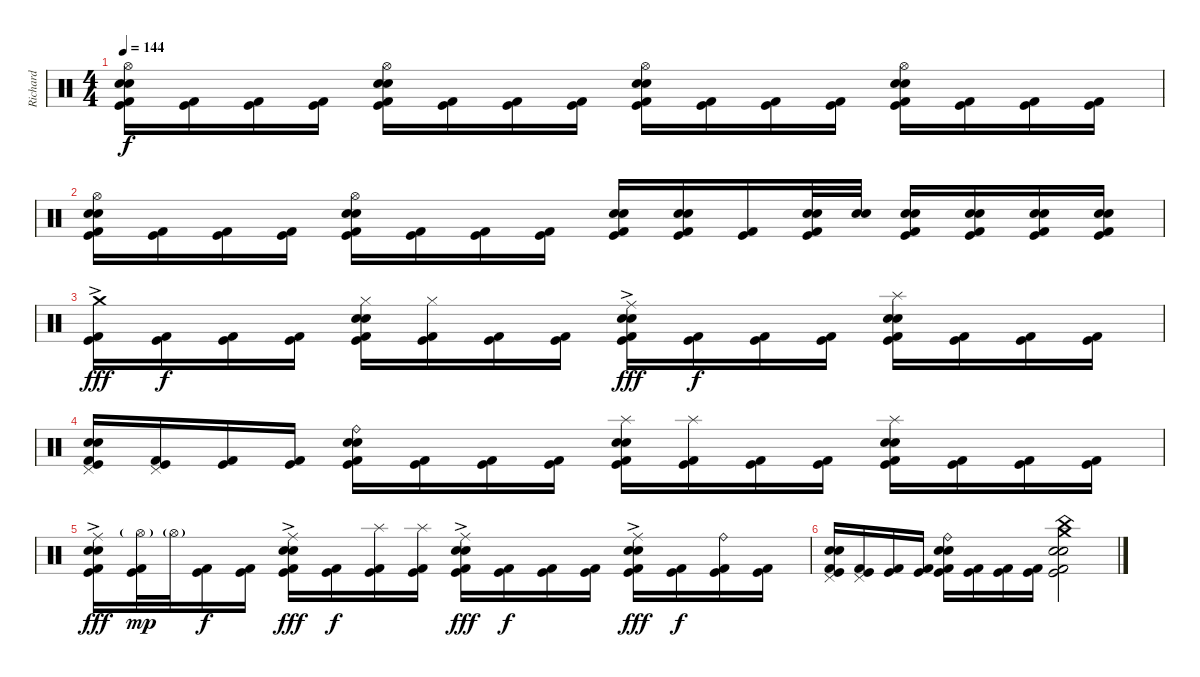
\track ("Richard" "Richard") {instrument percussion}
\staff {score}
\articulation defaults
\ts (4 4)
\tempo 144
\clef neutral
\ks c
("Hi-Hat (open)" "Snare (hit) 2" "Electric Snare (hit)" "Kick (hit) 2" "Kick (hit)").16{dy f} ("Kick (hit) 2" "Kick (hit)").16 ("Kick (hit) 2" "Kick (hit)").16 ("Kick (hit) 2" "Kick (hit)").16 ("Hi-Hat (open)" "Snare (hit) 2" "Electric Snare (hit)" "Kick (hit) 2" "Kick (hit)").16 ("Kick (hit) 2" "Kick (hit)").16 ("Kick (hit) 2" "Kick (hit)").16 ("Kick (hit) 2" "Kick (hit)").16 ("Hi-Hat (open)" "Snare (hit) 2" "Electric Snare (hit)" "Kick (hit) 2" "Kick (hit)").16 ("Kick (hit) 2" "Kick (hit)").16 ("Kick (hit) 2" "Kick (hit)").16 ("Kick (hit) 2" "Kick (hit)").16 ("Hi-Hat (open)" "Snare (hit) 2" "Electric Snare (hit)" "Kick (hit) 2" "Kick (hit)").16 ("Kick (hit) 2" "Kick (hit)").16 ("Kick (hit) 2" "Kick (hit)").16 ("Kick (hit) 2" "Kick (hit)").16 |
("Hi-Hat (open)" "Snare (hit) 2" "Electric Snare (hit)" "Kick (hit) 2" "Kick (hit)").16 ("Kick (hit) 2" "Kick (hit)").16 ("Kick (hit) 2" "Kick (hit)").16 ("Kick (hit) 2" "Kick (hit)").16 ("Hi-Hat (open)" "Snare (hit) 2" "Electric Snare (hit)" "Kick (hit) 2" "Kick (hit)").16 ("Kick (hit) 2" "Kick (hit)").16 ("Kick (hit) 2" "Kick (hit)").16 ("Kick (hit) 2" "Kick (hit)").16 ("Snare (hit) 2" "Electric Snare (hit)" "Kick (hit) 2" "Kick (hit)").16 ("Snare (hit) 2" "Electric Snare (hit)" "Kick (hit) 2" "Kick (hit)").16 ("Kick (hit) 2" "Kick (hit)").16 ("Snare (hit) 2" "Electric Snare (hit)" "Kick (hit) 2" "Kick (hit)").32 ("Snare (hit) 2" "Electric Snare (hit)").32 ("Snare (hit) 2" "Electric Snare (hit)" "Kick (hit) 2" "Kick (hit)").16 ("Snare (hit) 2" "Electric Snare (hit)" "Kick (hit) 2" "Kick (hit)").16 ("Snare (hit) 2" "Electric Snare (hit)" "Kick (hit) 2" "Kick (hit)").16 ("Snare (hit) 2" "Electric Snare (hit)" "Kick (hit) 2" "Kick (hit)").16 |
("Crash medium (hit)"{ac} "Kick (hit) 2" "Kick (hit)").16{dy fff} ("Kick (hit) 2" "Kick (hit)").16{dy f} ("Kick (hit) 2" "Kick (hit)").16 ("Kick (hit) 2" "Kick (hit)").16 ("Hi-Hat (closed)" "Snare (hit) 2" "Electric Snare (hit)" "Kick (hit) 2" "Kick (hit)").16 ("Hi-Hat (closed)" "Kick (hit) 2" "Kick (hit)").16 ("Kick (hit) 2" "Kick (hit)").16 ("Kick (hit) 2" "Kick (hit)").16 ("Ride (middle)"{ac} "Snare (hit) 2" "Electric Snare (hit)" "Kick (hit) 2" "Kick (hit)").16{dy fff} ("Kick (hit) 2" "Kick (hit)").16{dy f} ("Kick (hit) 2" "Kick (hit)").16 ("Kick (hit) 2" "Kick (hit)").16 ("Splash (hit)" "Snare (hit) 2" "Electric Snare (hit)" "Kick (hit) 2" "Kick (hit)").16 ("Kick (hit) 2" "Kick (hit)").16 ("Kick (hit) 2" "Kick (hit)").16 ("Kick (hit) 2" "Kick (hit)").16 |
("Pedal Hi-Hat (hit)" "Snare (hit) 2" "Electric Snare (hit)" "Kick (hit) 2" "Kick (hit)").16 ("Pedal Hi-Hat (hit)" "Kick (hit) 2" "Kick (hit)").16 ("Kick (hit) 2" "Kick (hit)").16 ("Kick (hit) 2" "Kick (hit)").16 ("Ride (bell)" "Snare (hit) 2" "Electric Snare (hit)" "Kick (hit) 2" "Kick (hit)").16 ("Kick (hit) 2" "Kick (hit)").16 ("Kick (hit) 2" "Kick (hit)").16 ("Kick (hit) 2" "Kick (hit)").16 ("Splash (hit)" "Snare (hit) 2" "Electric Snare (hit)" "Kick (hit) 2" "Kick (hit)").16 ("Splash (hit)" "Kick (hit) 2" "Kick (hit)").16 ("Kick (hit) 2" "Kick (hit)").16 ("Kick (hit) 2" "Kick (hit)").16 ("Splash (hit)" "Snare (hit) 2" "Electric Snare (hit)" "Kick (hit) 2" "Kick (hit)").16 ("Kick (hit) 2" "Kick (hit)").16 ("Kick (hit) 2" "Kick (hit)").16 ("Kick (hit) 2" "Kick (hit)").16 |
("Ride (middle)"{ac} "Snare (hit) 2" "Electric Snare (hit)" "Kick (hit) 2" "Kick (hit)").16{dy fff} ("Hi-Hat (open)"{g} "Kick (hit) 2" "Kick (hit)").32{dy mp} "Hi-Hat (open)"{g}.32 ("Kick (hit) 2" "Kick (hit)").16{dy f} ("Kick (hit) 2" "Kick (hit)").16 ("Ride (middle)"{ac} "Snare (hit) 2" "Electric Snare (hit)" "Kick (hit) 2" "Kick (hit)").16{dy fff} ("Kick (hit) 2" "Kick (hit)").16{dy f} ("Splash (hit)" "Kick (hit) 2" "Kick (hit)").16 ("Splash (hit)" "Kick (hit) 2" "Kick (hit)").16 ("Ride (middle)"{ac} "Snare (hit) 2" "Electric Snare (hit)" "Kick (hit) 2" "Kick (hit)").16{dy fff} ("Kick (hit) 2" "Kick (hit)").16{dy f} ("Kick (hit) 2" "Kick (hit)").16 ("Kick (hit) 2" "Kick (hit)").16 ("Ride (middle)"{ac} "Snare (hit) 2" "Electric Snare (hit)" "Kick (hit) 2" "Kick (hit)").16{dy fff} ("Kick (hit) 2" "Kick (hit)").16{dy f} ("Ride (bell)" "Kick (hit) 2" "Kick (hit)").16 ("Kick (hit) 2" "Kick (hit)").16 |
("Pedal Hi-Hat (hit)" "Snare (hit) 2" "Electric Snare (hit)" "Kick (hit) 2" "Kick (hit)").16 ("Pedal Hi-Hat (hit)" "Kick (hit) 2" "Kick (hit)").16 ("Kick (hit) 2" "Kick (hit)").16 ("Kick (hit) 2" "Kick (hit)").16 ("Ride (bell)" "Snare (hit) 2" "Electric Snare (hit)" "Kick (hit) 2" "Kick (hit)").16 ("Kick (hit) 2" "Kick (hit)").16 ("Kick (hit) 2" "Kick (hit)").16 ("Kick (hit) 2" "Kick (hit)").16 ("Crash medium (hit)" "China (hit)" "Snare (hit) 2" "Electric Snare (hit)" "Kick (hit) 2" "Kick (hit)").2
